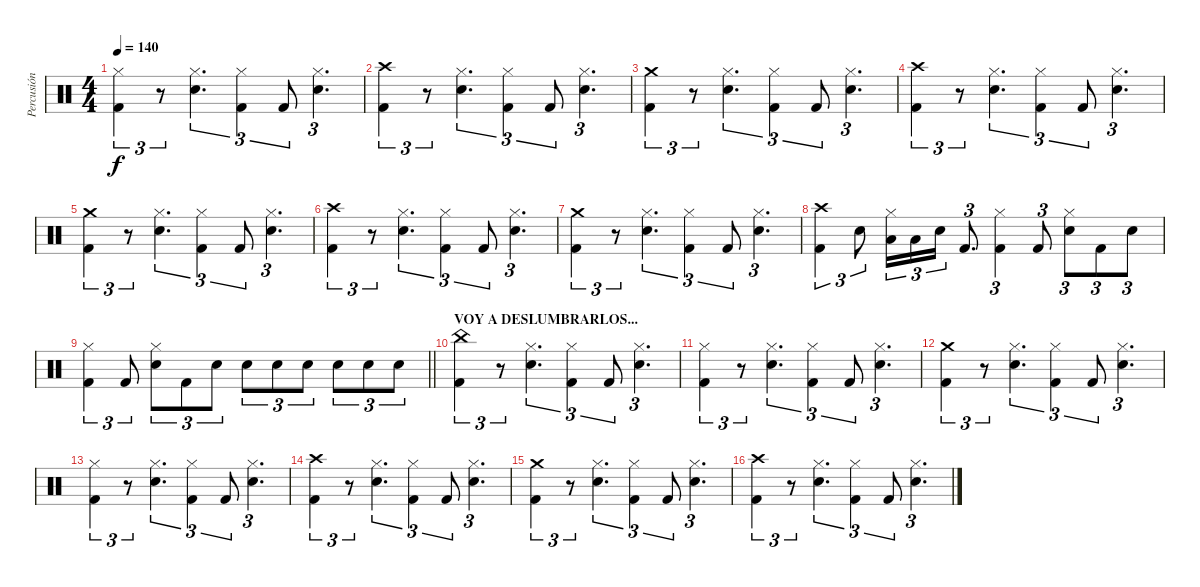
\track ("Percusión" "Percusión") {instrument percussion}
\staff {score}
\articulation defaults
\ts (4 4)
\tempo 140
\clef neutral
\ks c
("Hi-Hat (closed)" "Kick (hit) 2").4{tu (3 2) dy f} r.8{tu (3 2)} ("Hi-Hat (closed)" "Snare (hit) 2").4{d tu (3 2)} ("Hi-Hat (closed)" "Kick (hit) 2").4{tu (3 2)} "Kick (hit) 2".8{tu (3 2)} ("Hi-Hat (closed)" "Snare (hit) 2").4{d tu (3 2)} |
("Crash high (hit)" "Kick (hit) 2").4{tu (3 2)} r.8{tu (3 2)} ("Hi-Hat (closed)" "Snare (hit) 2").4{d tu (3 2)} ("Hi-Hat (closed)" "Kick (hit) 2").4{tu (3 2)} "Kick (hit) 2".8{tu (3 2)} ("Hi-Hat (closed)" "Snare (hit) 2").4{d tu (3 2)} |
("Crash medium (hit)" "Kick (hit) 2").4{tu (3 2)} r.8{tu (3 2)} ("Hi-Hat (closed)" "Snare (hit) 2").4{d tu (3 2)} ("Hi-Hat (closed)" "Kick (hit) 2").4{tu (3 2)} "Kick (hit) 2".8{tu (3 2)} ("Hi-Hat (closed)" "Snare (hit) 2").4{d tu (3 2)} |
("Crash high (hit)" "Kick (hit) 2").4{tu (3 2)} r.8{tu (3 2)} ("Hi-Hat (closed)" "Snare (hit) 2").4{d tu (3 2)} ("Hi-Hat (closed)" "Kick (hit) 2").4{tu (3 2)} "Kick (hit) 2".8{tu (3 2)} ("Hi-Hat (closed)" "Snare (hit) 2").4{d tu (3 2)} |
("Crash medium (hit)" "Kick (hit) 2").4{tu (3 2)} r.8{tu (3 2)} ("Hi-Hat (closed)" "Snare (hit) 2").4{d tu (3 2)} ("Hi-Hat (closed)" "Kick (hit) 2").4{tu (3 2)} "Kick (hit) 2".8{tu (3 2)} ("Hi-Hat (closed)" "Snare (hit) 2").4{d tu (3 2)} |
("Crash high (hit)" "Kick (hit) 2").4{tu (3 2)} r.8{tu (3 2)} ("Hi-Hat (closed)" "Snare (hit) 2").4{d tu (3 2)} ("Hi-Hat (closed)" "Kick (hit) 2").4{tu (3 2)} "Kick (hit) 2".8{tu (3 2)} ("Hi-Hat (closed)" "Snare (hit) 2").4{d tu (3 2)} |
("Crash medium (hit)" "Kick (hit) 2").4{tu (3 2)} r.8{tu (3 2)} ("Hi-Hat (closed)" "Snare (hit) 2").4{d tu (3 2)} ("Hi-Hat (closed)" "Kick (hit) 2").4{tu (3 2)} "Kick (hit) 2".8{tu (3 2)} ("Hi-Hat (closed)" "Snare (hit) 2").4{d tu (3 2)} |
("Crash high (hit)" "Kick (hit) 2").4{tu (3 2)} "Snare (hit) 2".8{tu (3 2)} ("Hi-Hat (closed)" "Low Tom (hit)").16{tu (3 2)} "Low Tom (hit)".16{tu (3 2)} "Snare (hit) 2".16{tu (3 2)} "Kick (hit) 2".8{d tu (3 2)} ("Hi-Hat (closed)" "Kick (hit) 2").4{tu (3 2)} "Kick (hit) 2".8{tu (3 2)} ("Hi-Hat (closed)" "Snare (hit) 2").8{tu (3 2)} "Kick (hit) 2".8{tu (3 2)} "Snare (hit) 2".8{tu (3 2)} |
\barLineRight lightlight
("Hi-Hat (closed)" "Kick (hit) 2").4{tu (3 2)} "Kick (hit) 2".8{tu (3 2)} ("Hi-Hat (closed)" "Snare (hit) 2").8{tu (3 2)} "Kick (hit) 2".8{tu (3 2)} "Snare (hit) 2".8{tu (3 2)} "Snare (hit) 2".8{tu (3 2)} "Snare (hit) 2".8{tu (3 2)} "Snare (hit) 2".8{tu (3 2)} "Snare (hit) 2".8{tu (3 2)} "Snare (hit) 2".8{tu (3 2)} "Snare (hit) 2".8{tu (3 2)} |
\section ("" "VOY A DESLUMBRARLOS...")
("China (hit)" "Kick (hit) 2").4{tu (3 2)} r.8{tu (3 2)} ("Hi-Hat (closed)" "Snare (hit) 2").4{d tu (3 2)} ("Hi-Hat (closed)" "Kick (hit) 2").4{tu (3 2)} "Kick (hit) 2".8{tu (3 2)} ("Hi-Hat (closed)" "Snare (hit) 2").4{d tu (3 2)} |
("Hi-Hat (closed)" "Kick (hit) 2").4{tu (3 2)} r.8{tu (3 2)} ("Hi-Hat (closed)" "Snare (hit) 2").4{d tu (3 2)} ("Hi-Hat (closed)" "Kick (hit) 2").4{tu (3 2)} "Kick (hit) 2".8{tu (3 2)} ("Hi-Hat (closed)" "Snare (hit) 2").4{d tu (3 2)} |
("Crash medium (hit)" "Kick (hit) 2").4{tu (3 2)} r.8{tu (3 2)} ("Hi-Hat (closed)" "Snare (hit) 2").4{d tu (3 2)} ("Hi-Hat (closed)" "Kick (hit) 2").4{tu (3 2)} "Kick (hit) 2".8{tu (3 2)} ("Hi-Hat (closed)" "Snare (hit) 2").4{d tu (3 2)} |
("Hi-Hat (closed)" "Kick (hit) 2").4{tu (3 2)} r.8{tu (3 2)} ("Hi-Hat (closed)" "Snare (hit) 2").4{d tu (3 2)} ("Hi-Hat (closed)" "Kick (hit) 2").4{tu (3 2)} "Kick (hit) 2".8{tu (3 2)} ("Hi-Hat (closed)" "Snare (hit) 2").4{d tu (3 2)} |
("Crash high (hit)" "Kick (hit) 2").4{tu (3 2)} r.8{tu (3 2)} ("Hi-Hat (closed)" "Snare (hit) 2").4{d tu (3 2)} ("Hi-Hat (closed)" "Kick (hit) 2").4{tu (3 2)} "Kick (hit) 2".8{tu (3 2)} ("Hi-Hat (closed)" "Snare (hit) 2").4{d tu (3 2)} |
("Crash medium (hit)" "Kick (hit) 2").4{tu (3 2)} r.8{tu (3 2)} ("Hi-Hat (closed)" "Snare (hit) 2").4{d tu (3 2)} ("Hi-Hat (closed)" "Kick (hit) 2").4{tu (3 2)} "Kick (hit) 2".8{tu (3 2)} ("Hi-Hat (closed)" "Snare (hit) 2").4{d tu (3 2)} |
("Crash high (hit)" "Kick (hit) 2").4{tu (3 2)} r.8{tu (3 2)} ("Hi-Hat (closed)" "Snare (hit) 2").4{d tu (3 2)} ("Hi-Hat (closed)" "Kick (hit) 2").4{tu (3 2)} "Kick (hit) 2".8{tu (3 2)} ("Hi-Hat (closed)" "Snare (hit) 2").4{d tu (3 2)}
